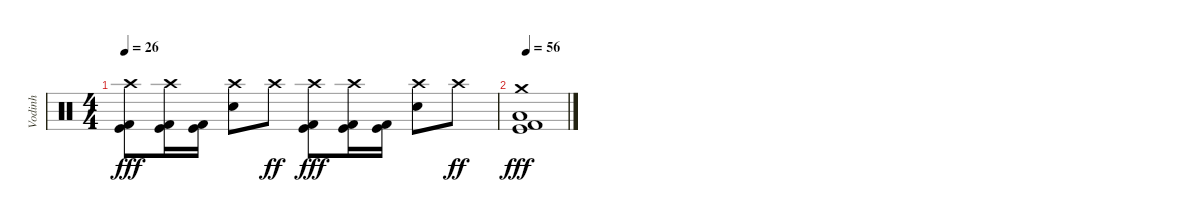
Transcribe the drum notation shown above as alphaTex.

\track ("Vodinh" "Vodinh") {instrument percussion}
\staff {score}
\articulation defaults
\ts (4 4)
\tempo 26
\clef neutral
\ks c
("Crash high (hit)" "Kick (hit)" "Kick (hit) 2").8{dy fff} ("Crash high (hit)" "Kick (hit)" "Kick (hit) 2").16 ("Kick (hit)" "Kick (hit) 2").16 ("Crash high (hit)" "Electric Snare (hit)").8 "Crash high (hit)".8{dy ff} ("Crash high (hit)" "Kick (hit)" "Kick (hit) 2").8{dy fff} ("Crash high (hit)" "Kick (hit)" "Kick (hit) 2").16 ("Kick (hit)" "Kick (hit) 2").16 ("Crash high (hit)" "Electric Snare (hit)").8 "Crash high (hit)".8{dy ff} |
\tempo 56
("Crash medium (hit)" "Low Floor Tom (hit)" "Kick (hit)" "Kick (hit) 2").1{dy fff}
